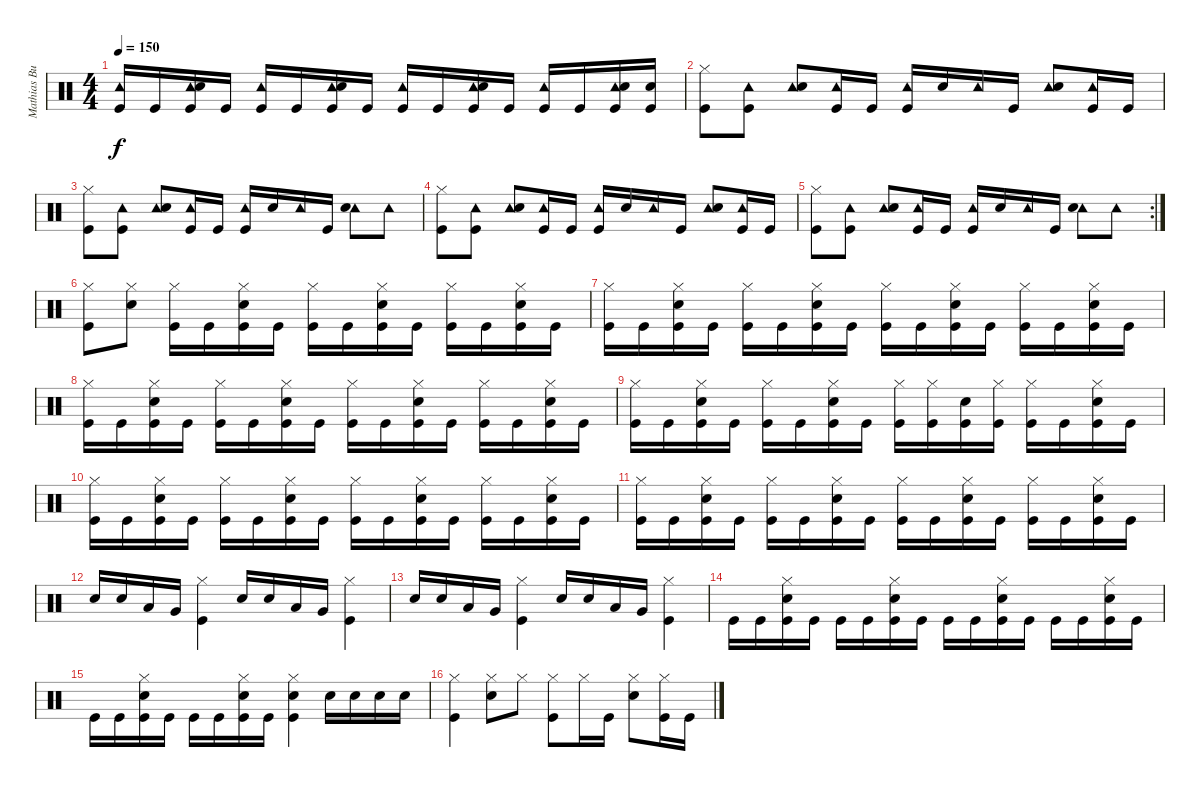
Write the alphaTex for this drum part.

\track ("Mathias Burchardt - batterie" "Mathias Bu") {instrument percussion}
\staff {score}
\articulation defaults
\ts (4 4)
\tempo 150
\clef neutral
\ks c
("Tambourine (hit)" "Kick (hit)").16{dy f} "Kick (hit)".16 ("Tambourine (hit)" "Snare (hit) 2" "Kick (hit)").16 "Kick (hit)".16 ("Tambourine (hit)" "Kick (hit)").16 "Kick (hit)".16 ("Tambourine (hit)" "Snare (hit) 2" "Kick (hit)").16 "Kick (hit)".16 ("Tambourine (hit)" "Kick (hit)").16 "Kick (hit)".16 ("Tambourine (hit)" "Snare (hit) 2" "Kick (hit)").16 "Kick (hit)".16 ("Tambourine (hit)" "Kick (hit)").16 "Kick (hit)".16 ("Tambourine (hit)" "Snare (hit) 2" "Kick (hit)").16 ("Snare (hit) 2" "Kick (hit)").16 |
("Hi-Hat (closed)" "Kick (hit)").8 ("Tambourine (hit)" "Kick (hit)").8 ("Tambourine (hit)" "Snare (hit) 2").8 ("Tambourine (hit)" "Kick (hit)").16 "Kick (hit)".16 ("Tambourine (hit)" "Kick (hit)").16 "Snare (hit) 2".16 "Tambourine (hit)".16 "Kick (hit)".16 ("Tambourine (hit)" "Snare (hit) 2").8 ("Tambourine (hit)" "Kick (hit)").16 "Kick (hit)".16 |
("Hi-Hat (closed)" "Kick (hit)").8 ("Tambourine (hit)" "Kick (hit)").8 ("Tambourine (hit)" "Snare (hit) 2").8 ("Tambourine (hit)" "Kick (hit)").16 "Kick (hit)".16 ("Tambourine (hit)" "Kick (hit)").16 "Snare (hit) 2".16 "Tambourine (hit)".16 "Kick (hit)".16 ("Tambourine (hit)" "Snare (hit) 2").8 "Tambourine (hit)".8 |
("Hi-Hat (closed)" "Kick (hit)").8 ("Tambourine (hit)" "Kick (hit)").8 ("Tambourine (hit)" "Snare (hit) 2").8 ("Tambourine (hit)" "Kick (hit)").16 "Kick (hit)".16 ("Tambourine (hit)" "Kick (hit)").16 "Snare (hit) 2".16 "Tambourine (hit)".16 "Kick (hit)".16 ("Tambourine (hit)" "Snare (hit) 2").8 ("Tambourine (hit)" "Kick (hit)").16 "Kick (hit)".16 |
\rc 2
("Hi-Hat (closed)" "Kick (hit)").8 ("Tambourine (hit)" "Kick (hit)").8 ("Tambourine (hit)" "Snare (hit) 2").8 ("Tambourine (hit)" "Kick (hit)").16 "Kick (hit)".16 ("Tambourine (hit)" "Kick (hit)").16 "Snare (hit) 2".16 "Tambourine (hit)".16 "Kick (hit)".16 ("Tambourine (hit)" "Snare (hit) 2").8 "Tambourine (hit)".8 |
("Hi-Hat (closed)" "Kick (hit)").8 ("Hi-Hat (closed)" "Snare (hit) 2").8 ("Hi-Hat (closed)" "Kick (hit)").16 "Kick (hit)".16 ("Hi-Hat (closed)" "Snare (hit) 2" "Kick (hit)").16 "Kick (hit)".16 ("Hi-Hat (closed)" "Kick (hit)").16 "Kick (hit)".16 ("Hi-Hat (closed)" "Snare (hit) 2" "Kick (hit)").16 "Kick (hit)".16 ("Hi-Hat (closed)" "Kick (hit)").16 "Kick (hit)".16 ("Hi-Hat (closed)" "Snare (hit) 2" "Kick (hit)").16 "Kick (hit)".16 |
("Hi-Hat (closed)" "Kick (hit)").16 "Kick (hit)".16 ("Hi-Hat (closed)" "Snare (hit) 2" "Kick (hit)").16 "Kick (hit)".16 ("Hi-Hat (closed)" "Kick (hit)").16 "Kick (hit)".16 ("Hi-Hat (closed)" "Snare (hit) 2" "Kick (hit)").16 "Kick (hit)".16 ("Hi-Hat (closed)" "Kick (hit)").16 "Kick (hit)".16 ("Hi-Hat (closed)" "Snare (hit) 2" "Kick (hit)").16 "Kick (hit)".16 ("Hi-Hat (closed)" "Kick (hit)").16 "Kick (hit)".16 ("Hi-Hat (closed)" "Snare (hit) 2" "Kick (hit)").16 "Kick (hit)".16 |
("Hi-Hat (closed)" "Kick (hit)").16 "Kick (hit)".16 ("Hi-Hat (closed)" "Snare (hit) 2" "Kick (hit)").16 "Kick (hit)".16 ("Hi-Hat (closed)" "Kick (hit)").16 "Kick (hit)".16 ("Hi-Hat (closed)" "Snare (hit) 2" "Kick (hit)").16 "Kick (hit)".16 ("Hi-Hat (closed)" "Kick (hit)").16 "Kick (hit)".16 ("Hi-Hat (closed)" "Snare (hit) 2" "Kick (hit)").16 "Kick (hit)".16 ("Hi-Hat (closed)" "Kick (hit)").16 "Kick (hit)".16 ("Hi-Hat (closed)" "Snare (hit) 2" "Kick (hit)").16 "Kick (hit)".16 |
("Hi-Hat (closed)" "Kick (hit)").16 "Kick (hit)".16 ("Hi-Hat (closed)" "Snare (hit) 2" "Kick (hit)").16 "Kick (hit)".16 ("Hi-Hat (closed)" "Kick (hit)").16 "Kick (hit)".16 ("Hi-Hat (closed)" "Snare (hit) 2" "Kick (hit)").16 "Kick (hit)".16 ("Hi-Hat (closed)" "Kick (hit)").16 ("Hi-Hat (closed)" "Kick (hit)").16 ("Snare (hit) 2" "Kick (hit)").16 ("Hi-Hat (closed)" "Kick (hit)").16 ("Hi-Hat (closed)" "Kick (hit)").16 "Kick (hit)".16 ("Hi-Hat (closed)" "Snare (hit) 2" "Kick (hit)").16 "Kick (hit)".16 |
("Hi-Hat (closed)" "Kick (hit)").16 "Kick (hit)".16 ("Hi-Hat (closed)" "Snare (hit) 2" "Kick (hit)").16 "Kick (hit)".16 ("Hi-Hat (closed)" "Kick (hit)").16 "Kick (hit)".16 ("Hi-Hat (closed)" "Snare (hit) 2" "Kick (hit)").16 "Kick (hit)".16 ("Hi-Hat (closed)" "Kick (hit)").16 "Kick (hit)".16 ("Hi-Hat (closed)" "Snare (hit) 2" "Kick (hit)").16 "Kick (hit)".16 ("Hi-Hat (closed)" "Kick (hit)").16 "Kick (hit)".16 ("Hi-Hat (closed)" "Snare (hit) 2" "Kick (hit)").16 "Kick (hit)".16 |
("Hi-Hat (closed)" "Kick (hit)").16 "Kick (hit)".16 ("Hi-Hat (closed)" "Snare (hit) 2" "Kick (hit)").16 "Kick (hit)".16 ("Hi-Hat (closed)" "Kick (hit)").16 "Kick (hit)".16 ("Hi-Hat (closed)" "Snare (hit) 2" "Kick (hit)").16 "Kick (hit)".16 ("Hi-Hat (closed)" "Kick (hit)").16 "Kick (hit)".16 ("Hi-Hat (closed)" "Snare (hit) 2" "Kick (hit)").16 "Kick (hit)".16 ("Hi-Hat (closed)" "Kick (hit)").16 "Kick (hit)".16 ("Hi-Hat (closed)" "Snare (hit) 2" "Kick (hit)").16 "Kick (hit)".16 |
"Snare (hit) 2".16 "Snare (hit) 2".16 "Low Tom (hit)".16 "Very Low Tom (hit)".16 ("Hi-Hat (closed)" "Kick (hit)").4 "Snare (hit) 2".16 "Snare (hit) 2".16 "Low Tom (hit)".16 "Very Low Tom (hit)".16 ("Hi-Hat (closed)" "Kick (hit)").4 |
"Snare (hit) 2".16 "Snare (hit) 2".16 "Low Tom (hit)".16 "Very Low Tom (hit)".16 ("Hi-Hat (closed)" "Kick (hit)").4 "Snare (hit) 2".16 "Snare (hit) 2".16 "Low Tom (hit)".16 "Very Low Tom (hit)".16 ("Hi-Hat (closed)" "Kick (hit)").4 |
"Kick (hit)".16 "Kick (hit)".16 ("Hi-Hat (closed)" "Snare (hit) 2" "Kick (hit)").16 "Kick (hit)".16 "Kick (hit)".16 "Kick (hit)".16 ("Hi-Hat (closed)" "Snare (hit) 2" "Kick (hit)").16 "Kick (hit)".16 "Kick (hit)".16 "Kick (hit)".16 ("Hi-Hat (closed)" "Snare (hit) 2" "Kick (hit)").16 "Kick (hit)".16 "Kick (hit)".16 "Kick (hit)".16 ("Hi-Hat (closed)" "Snare (hit) 2" "Kick (hit)").16 "Kick (hit)".16 |
"Kick (hit)".16 "Kick (hit)".16 ("Hi-Hat (closed)" "Snare (hit) 2" "Kick (hit)").16 "Kick (hit)".16 "Kick (hit)".16 "Kick (hit)".16 ("Hi-Hat (closed)" "Snare (hit) 2" "Kick (hit)").16 "Kick (hit)".16 ("Hi-Hat (closed)" "Snare (hit) 2" "Kick (hit)").4 "Snare (hit) 2".16 "Snare (hit) 2".16 "Snare (hit) 2".16 "Snare (hit) 2".16 |
("Hi-Hat (closed)" "Kick (hit)").4 ("Hi-Hat (closed)" "Snare (hit) 2").8 "Hi-Hat (closed)".8 ("Hi-Hat (closed)" "Kick (hit)").8 "Hi-Hat (closed)".16 "Kick (hit)".16 ("Hi-Hat (closed)" "Snare (hit) 2").8 ("Hi-Hat (closed)" "Kick (hit)").16 "Kick (hit)".16
